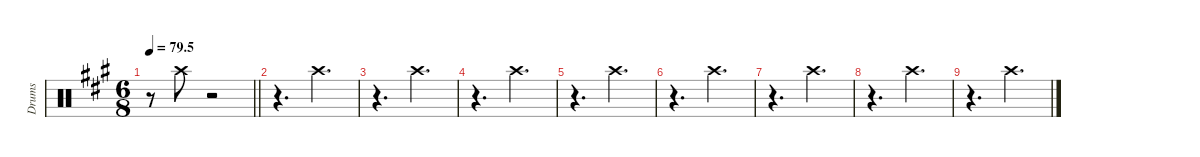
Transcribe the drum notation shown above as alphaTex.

\defaultSystemsLayout 4
\hideDynamics
\bracketExtendMode nobrackets
\otherSystemsTrackNameOrientation horizontal
\track ("Left crash" "Drums") {instrument percussion}
\staff {score}
\articulation defaults
\ts (6 8)
\tempo
79.5
\accidentals auto
\clef neutral
\ottava regular
\simile none
\scale
0.333333
\barLineRight lightlight
\ks a
r.8{dy f} "Crash high (hit)"{acc forcenatural}.8 r.2 |
\scale
0.333333 r.4{d} "Crash high (hit)"{acc forcenatural}.4{d} |
\scale
0.333333 r.4{d} "Crash high (hit)"{acc forcenatural}.4{d} |
\scale
0.333333 r.4{d} "Crash high (hit)"{acc forcenatural}.4{d} |
\scale
0.333333 r.4{d} "Crash high (hit)"{acc forcenatural}.4{d} |
\scale
0.333333 r.4{d} "Crash high (hit)"{acc forcenatural}.4{d} |
\scale
0.333333 r.4{d} "Crash high (hit)"{acc forcenatural}.4{d} |
\scale
0.333333 r.4{d} "Crash high (hit)"{acc forcenatural}.4{d} |
\scale
0.333333 r.4{d} "Crash high (hit)"{acc forcenatural}.4{d} |
\scale
0.333333 |
\scale
0.333333 |
\scale
0.333333
